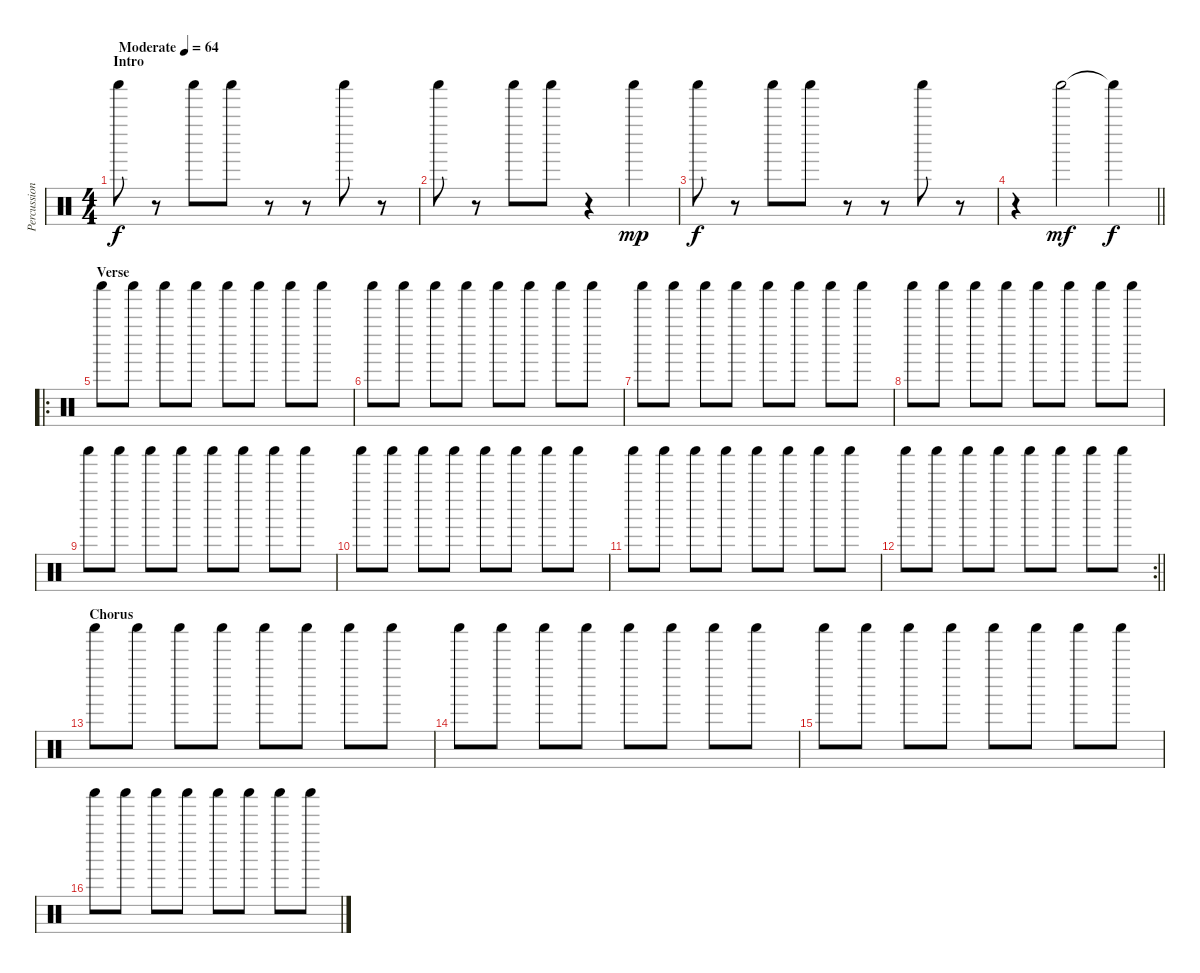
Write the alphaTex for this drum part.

\track ("Percussions" "Percussion") {instrument percussion}
\staff {score}
\articulation defaults
\ts (4 4)
\section ("" "Intro")
\tempo (64 "Moderate")
\clef neutral
\ks c "Shaker (hit)".8{dy f}
r.8 "Shaker (hit)".8 "Shaker (hit)".8 r.8 r.8 "Shaker (hit)".8 r.8 |
"Shaker (hit)".8 r.8 "Shaker (hit)".8 "Shaker (hit)".8 r.4 "Shaker (hit)".4{dy mp} |
"Shaker (hit)".8{dy f} r.8 "Shaker (hit)".8 "Shaker (hit)".8 r.8 r.8 "Shaker (hit)".8 r.8 |
\barLineRight lightlight
r.4 "Shaker (hit)".2{dy mf} "Shaker (hit)"{t}.4{dy f} |
\ro
\section ("" "Verse")
"Shaker (hit)".8 "Shaker (hit)".8 "Shaker (hit)".8 "Shaker (hit)".8 "Shaker (hit)".8 "Shaker (hit)".8 "Shaker (hit)".8 "Shaker (hit)".8 |
"Shaker (hit)".8 "Shaker (hit)".8 "Shaker (hit)".8 "Shaker (hit)".8 "Shaker (hit)".8 "Shaker (hit)".8 "Shaker (hit)".8 "Shaker (hit)".8 |
"Shaker (hit)".8 "Shaker (hit)".8 "Shaker (hit)".8 "Shaker (hit)".8 "Shaker (hit)".8 "Shaker (hit)".8 "Shaker (hit)".8 "Shaker (hit)".8 |
"Shaker (hit)".8 "Shaker (hit)".8 "Shaker (hit)".8 "Shaker (hit)".8 "Shaker (hit)".8 "Shaker (hit)".8 "Shaker (hit)".8 "Shaker (hit)".8 |
"Shaker (hit)".8 "Shaker (hit)".8 "Shaker (hit)".8 "Shaker (hit)".8 "Shaker (hit)".8 "Shaker (hit)".8 "Shaker (hit)".8 "Shaker (hit)".8 |
"Shaker (hit)".8 "Shaker (hit)".8 "Shaker (hit)".8 "Shaker (hit)".8 "Shaker (hit)".8 "Shaker (hit)".8 "Shaker (hit)".8 "Shaker (hit)".8 |
"Shaker (hit)".8 "Shaker (hit)".8 "Shaker (hit)".8 "Shaker (hit)".8 "Shaker (hit)".8 "Shaker (hit)".8 "Shaker (hit)".8 "Shaker (hit)".8 |
\rc 2
\barLineRight lightlight "Shaker (hit)".8 "Shaker (hit)".8 "Shaker (hit)".8 "Shaker (hit)".8 "Shaker (hit)".8 "Shaker (hit)".8 "Shaker (hit)".8 "Shaker (hit)".8
|
\section ("" "Chorus")
"Shaker (hit)".8 "Shaker (hit)".8 "Shaker (hit)".8 "Shaker (hit)".8 "Shaker (hit)".8 "Shaker (hit)".8 "Shaker (hit)".8 "Shaker (hit)".8 |
"Shaker (hit)".8 "Shaker (hit)".8 "Shaker (hit)".8 "Shaker (hit)".8 "Shaker (hit)".8 "Shaker (hit)".8 "Shaker (hit)".8 "Shaker (hit)".8 |
"Shaker (hit)".8 "Shaker (hit)".8 "Shaker (hit)".8 "Shaker (hit)".8 "Shaker (hit)".8 "Shaker (hit)".8 "Shaker (hit)".8 "Shaker (hit)".8 |
"Shaker (hit)".8 "Shaker (hit)".8 "Shaker (hit)".8 "Shaker (hit)".8 "Shaker (hit)".8 "Shaker (hit)".8 "Shaker (hit)".8 "Shaker (hit)".8
